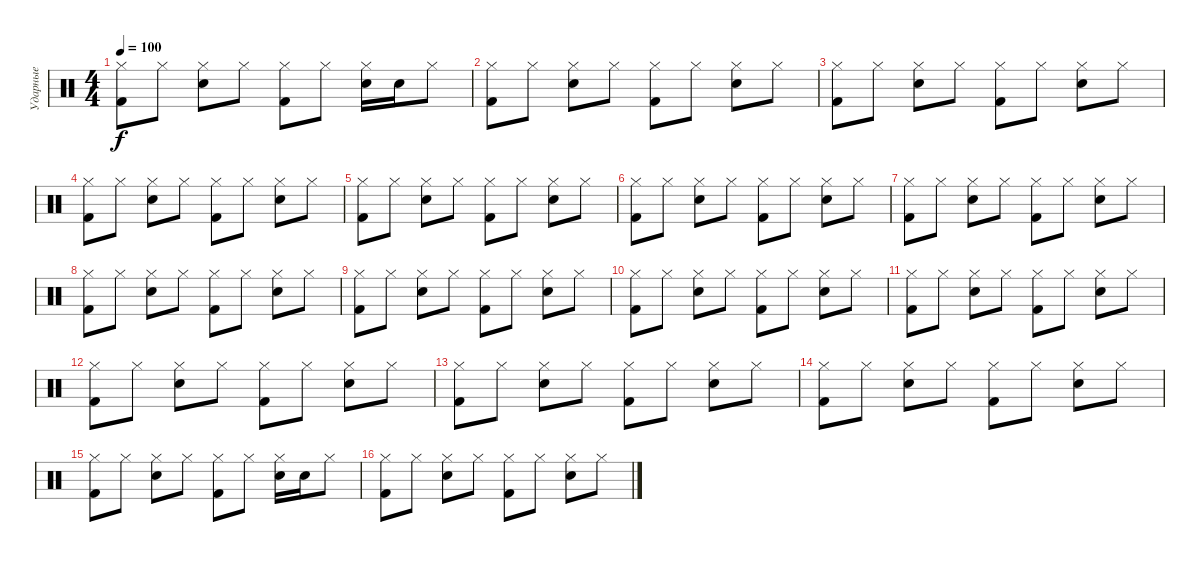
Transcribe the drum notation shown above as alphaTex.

\track ("Ударные" "Ударные") {instrument percussion}
\staff {score}
\articulation defaults
\ts (4 4)
\tempo 100
\clef neutral
\ks c
("Hi-Hat (closed)" "Kick (hit) 2").8{dy f} "Hi-Hat (closed)".8 ("Electric Snare (hit)" "Hi-Hat (closed)").8 "Hi-Hat (closed)".8 ("Hi-Hat (closed)" "Kick (hit) 2").8 "Hi-Hat (closed)".8 ("Electric Snare (hit)" "Hi-Hat (closed)").16 "Electric Snare (hit)".16 "Hi-Hat (closed)".8 |
("Hi-Hat (closed)" "Kick (hit) 2").8 "Hi-Hat (closed)".8 ("Electric Snare (hit)" "Hi-Hat (closed)").8 "Hi-Hat (closed)".8 ("Hi-Hat (closed)" "Kick (hit) 2").8 "Hi-Hat (closed)".8 ("Electric Snare (hit)" "Hi-Hat (closed)").8 "Hi-Hat (closed)".8 |
("Hi-Hat (closed)" "Kick (hit) 2").8 "Hi-Hat (closed)".8 ("Electric Snare (hit)" "Hi-Hat (closed)").8 "Hi-Hat (closed)".8 ("Hi-Hat (closed)" "Kick (hit) 2").8 "Hi-Hat (closed)".8 ("Electric Snare (hit)" "Hi-Hat (closed)").8 "Hi-Hat (closed)".8 |
("Hi-Hat (closed)" "Kick (hit) 2").8 "Hi-Hat (closed)".8 ("Electric Snare (hit)" "Hi-Hat (closed)").8 "Hi-Hat (closed)".8 ("Hi-Hat (closed)" "Kick (hit) 2").8 "Hi-Hat (closed)".8 ("Electric Snare (hit)" "Hi-Hat (closed)").8 "Hi-Hat (closed)".8 |
("Hi-Hat (closed)" "Kick (hit) 2").8 "Hi-Hat (closed)".8 ("Electric Snare (hit)" "Hi-Hat (closed)").8 "Hi-Hat (closed)".8 ("Hi-Hat (closed)" "Kick (hit) 2").8 "Hi-Hat (closed)".8 ("Electric Snare (hit)" "Hi-Hat (closed)").8 "Hi-Hat (closed)".8 |
("Hi-Hat (closed)" "Kick (hit) 2").8 "Hi-Hat (closed)".8 ("Electric Snare (hit)" "Hi-Hat (closed)").8 "Hi-Hat (closed)".8 ("Hi-Hat (closed)" "Kick (hit) 2").8 "Hi-Hat (closed)".8 ("Electric Snare (hit)" "Hi-Hat (closed)").8 "Hi-Hat (closed)".8 |
("Hi-Hat (closed)" "Kick (hit) 2").8 "Hi-Hat (closed)".8 ("Electric Snare (hit)" "Hi-Hat (closed)").8 "Hi-Hat (closed)".8 ("Hi-Hat (closed)" "Kick (hit) 2").8 "Hi-Hat (closed)".8 ("Electric Snare (hit)" "Hi-Hat (closed)").8 "Hi-Hat (closed)".8 |
("Hi-Hat (closed)" "Kick (hit) 2").8 "Hi-Hat (closed)".8 ("Electric Snare (hit)" "Hi-Hat (closed)").8 "Hi-Hat (closed)".8 ("Hi-Hat (closed)" "Kick (hit) 2").8 "Hi-Hat (closed)".8 ("Electric Snare (hit)" "Hi-Hat (closed)").8 "Hi-Hat (closed)".8 |
("Hi-Hat (closed)" "Kick (hit) 2").8 "Hi-Hat (closed)".8 ("Electric Snare (hit)" "Hi-Hat (closed)").8 "Hi-Hat (closed)".8 ("Hi-Hat (closed)" "Kick (hit) 2").8 "Hi-Hat (closed)".8 ("Electric Snare (hit)" "Hi-Hat (closed)").8 "Hi-Hat (closed)".8 |
("Hi-Hat (closed)" "Kick (hit) 2").8 "Hi-Hat (closed)".8 ("Electric Snare (hit)" "Hi-Hat (closed)").8 "Hi-Hat (closed)".8 ("Hi-Hat (closed)" "Kick (hit) 2").8 "Hi-Hat (closed)".8 ("Electric Snare (hit)" "Hi-Hat (closed)").8 "Hi-Hat (closed)".8 |
("Hi-Hat (closed)" "Kick (hit) 2").8 "Hi-Hat (closed)".8 ("Electric Snare (hit)" "Hi-Hat (closed)").8 "Hi-Hat (closed)".8 ("Hi-Hat (closed)" "Kick (hit) 2").8 "Hi-Hat (closed)".8 ("Electric Snare (hit)" "Hi-Hat (closed)").8 "Hi-Hat (closed)".8 |
("Hi-Hat (closed)" "Kick (hit) 2").8 "Hi-Hat (closed)".8 ("Electric Snare (hit)" "Hi-Hat (closed)").8 "Hi-Hat (closed)".8 ("Hi-Hat (closed)" "Kick (hit) 2").8 "Hi-Hat (closed)".8 ("Electric Snare (hit)" "Hi-Hat (closed)").8 "Hi-Hat (closed)".8 |
("Hi-Hat (closed)" "Kick (hit) 2").8 "Hi-Hat (closed)".8 ("Electric Snare (hit)" "Hi-Hat (closed)").8 "Hi-Hat (closed)".8 ("Hi-Hat (closed)" "Kick (hit) 2").8 "Hi-Hat (closed)".8 ("Electric Snare (hit)" "Hi-Hat (closed)").8 "Hi-Hat (closed)".8 |
("Hi-Hat (closed)" "Kick (hit) 2").8 "Hi-Hat (closed)".8 ("Electric Snare (hit)" "Hi-Hat (closed)").8 "Hi-Hat (closed)".8 ("Hi-Hat (closed)" "Kick (hit) 2").8 "Hi-Hat (closed)".8 ("Electric Snare (hit)" "Hi-Hat (closed)").8 "Hi-Hat (closed)".8 |
("Hi-Hat (closed)" "Kick (hit) 2").8 "Hi-Hat (closed)".8 ("Electric Snare (hit)" "Hi-Hat (closed)").8 "Hi-Hat (closed)".8 ("Hi-Hat (closed)" "Kick (hit) 2").8 "Hi-Hat (closed)".8 ("Electric Snare (hit)" "Hi-Hat (closed)").16 "Electric Snare (hit)".16 "Hi-Hat (closed)".8 |
("Hi-Hat (closed)" "Kick (hit) 2").8 "Hi-Hat (closed)".8 ("Electric Snare (hit)" "Hi-Hat (closed)").8 "Hi-Hat (closed)".8 ("Hi-Hat (closed)" "Kick (hit) 2").8 "Hi-Hat (closed)".8 ("Electric Snare (hit)" "Hi-Hat (closed)").8 "Hi-Hat (closed)".8
